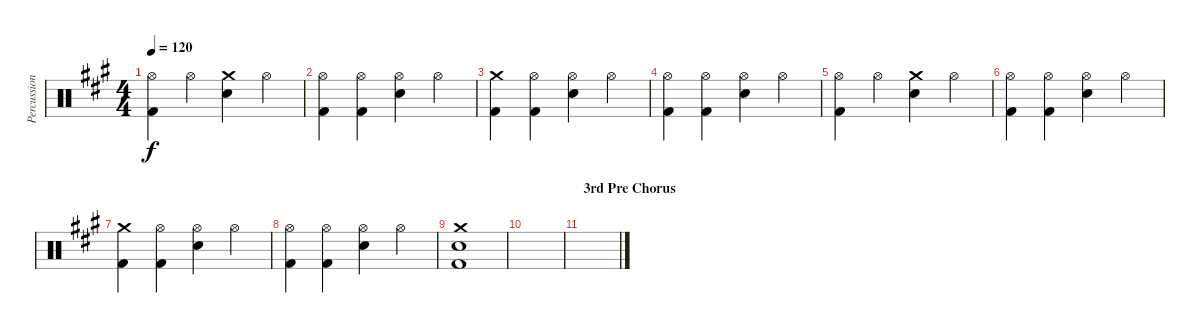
\track ("Percussion" "Percussion") {instrument percussion}
\staff {score}
\articulation defaults
\ts (4 4)
\tempo 120
\clef neutral
\ks a
("Hi-Hat (open)" "Kick (hit) 2").4{dy f} "Hi-Hat (open)".4 ("Crash medium (hit)" "Snare (hit) 2").4 "Hi-Hat (open)".4 |
("Hi-Hat (open)" "Kick (hit) 2").4 ("Hi-Hat (open)" "Kick (hit) 2").4 ("Hi-Hat (open)" "Snare (hit) 2").4 "Hi-Hat (open)".4 |
("Crash medium (hit)" "Kick (hit) 2").4 ("Hi-Hat (open)" "Kick (hit) 2").4 ("Hi-Hat (open)" "Snare (hit) 2").4 "Hi-Hat (open)".4 |
("Hi-Hat (open)" "Kick (hit) 2").4 ("Hi-Hat (open)" "Kick (hit) 2").4 ("Hi-Hat (open)" "Snare (hit) 2").4 "Hi-Hat (open)".4 |
("Hi-Hat (open)" "Kick (hit) 2").4 "Hi-Hat (open)".4 ("Crash medium (hit)" "Snare (hit) 2").4 "Hi-Hat (open)".4 |
("Hi-Hat (open)" "Kick (hit) 2").4 ("Hi-Hat (open)" "Kick (hit) 2").4 ("Hi-Hat (open)" "Snare (hit) 2").4 "Hi-Hat (open)".4 |
("Crash medium (hit)" "Kick (hit) 2").4 ("Hi-Hat (open)" "Kick (hit) 2").4 ("Hi-Hat (open)" "Snare (hit) 2").4 "Hi-Hat (open)".4 |
("Hi-Hat (open)" "Kick (hit) 2").4 ("Hi-Hat (open)" "Kick (hit) 2").4 ("Hi-Hat (open)" "Snare (hit) 2").4 "Hi-Hat (open)".4 |
("Crash medium (hit)" "Snare (hit) 2" "Kick (hit) 2").1 |
|
\section ("" "3rd Pre Chorus")
